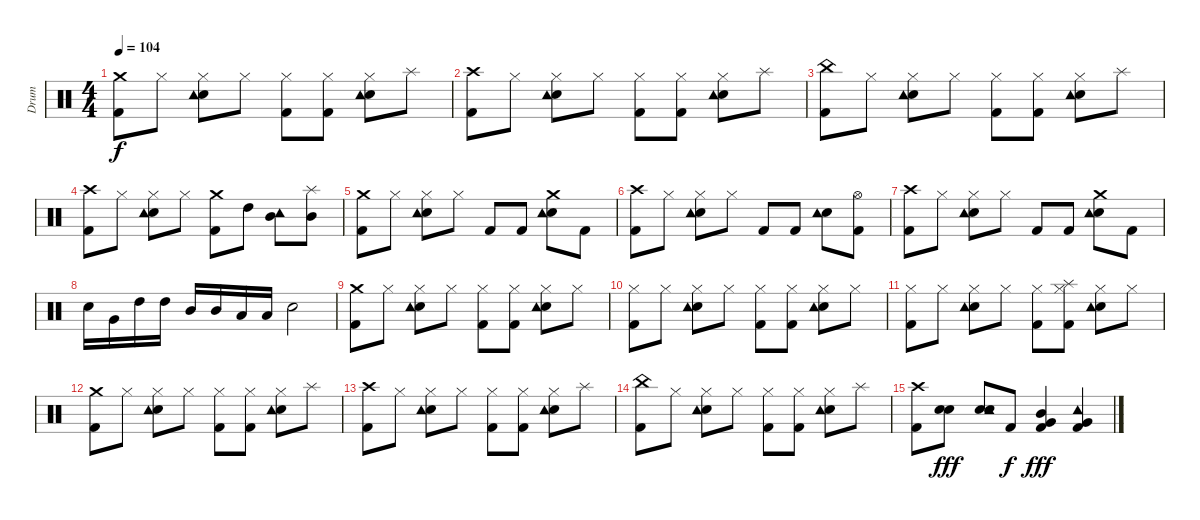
\track ("Drum" "Drum") {instrument percussion}
\staff {score}
\articulation defaults
\ts (4 4)
\tempo 104
\clef neutral
\ks c
("Crash medium (hit)" "Kick (hit) 2").8{dy f} "Hi-Hat (closed)".8 ("Snare (hit) 2" "Hi-Hat (closed)" "Tambourine (hit)").8 "Hi-Hat (closed)".8 ("Hi-Hat (closed)" "Kick (hit) 2").8 ("Hi-Hat (closed)" "Kick (hit) 2").8 ("Snare (hit) 2" "Hi-Hat (closed)" "Tambourine (hit)").8 "Splash (hit)".8 |
("Crash high (hit)" "Kick (hit) 2").8 "Hi-Hat (closed)".8 ("Snare (hit) 2" "Hi-Hat (closed)" "Tambourine (hit)").8 "Hi-Hat (closed)".8 ("Hi-Hat (closed)" "Kick (hit) 2").8 ("Hi-Hat (closed)" "Kick (hit) 2").8 ("Snare (hit) 2" "Hi-Hat (closed)" "Tambourine (hit)").8 "Splash (hit)".8 |
("China (hit)" "Kick (hit) 2").8 "Hi-Hat (closed)".8 ("Snare (hit) 2" "Hi-Hat (closed)" "Tambourine (hit)").8 "Hi-Hat (closed)".8 ("Hi-Hat (closed)" "Kick (hit) 2").8 ("Hi-Hat (closed)" "Kick (hit) 2").8 ("Snare (hit) 2" "Hi-Hat (closed)" "Tambourine (hit)").8 "Splash (hit)".8 |
("Crash high (hit)" "Kick (hit) 2").8 "Hi-Hat (closed)".8 ("Snare (hit) 2" "Hi-Hat (closed)" "Tambourine (hit)").8 "Hi-Hat (closed)".8 ("Crash medium (hit)" "Kick (hit) 2").8 "High Tom (hit)".8 ("Mid Tom (hit)" "Tambourine (hit)").8 ("Mid Tom (hit)" "Splash (hit)").8 |
("Crash medium (hit)" "Kick (hit) 2").8 "Hi-Hat (closed)".8 ("Snare (hit) 2" "Hi-Hat (closed)" "Tambourine (hit)").8 "Hi-Hat (closed)".8 "Kick (hit) 2".8 "Kick (hit) 2".8 ("Snare (hit) 2" "Crash medium (hit)" "Tambourine (hit)").8 "Kick (hit) 2".8 |
("Crash high (hit)" "Kick (hit) 2").8 "Hi-Hat (closed)".8 ("Snare (hit) 2" "Hi-Hat (closed)" "Tambourine (hit)").8 "Hi-Hat (closed)".8 "Kick (hit) 2".8 "Kick (hit) 2".8 ("Snare (hit) 2" "Tambourine (hit)").8 ("Hi-Hat (open)" "Kick (hit) 2").8 |
("Crash high (hit)" "Kick (hit) 2").8 "Hi-Hat (closed)".8 ("Snare (hit) 2" "Hi-Hat (closed)" "Tambourine (hit)").8 "Hi-Hat (closed)".8 "Kick (hit) 2".8 "Kick (hit) 2".8 ("Snare (hit) 2" "Crash medium (hit)" "Tambourine (hit)").8 "Kick (hit) 2".8 |
"Snare (hit) 2".16 "Very Low Tom (hit)".16 "High Tom (hit)".16 "High Tom (hit)".16 "Mid Tom (hit)".16 "Mid Tom (hit)".16 "Low Tom (hit)".16 "Low Tom (hit)".16 "Snare (hit) 2".2 |
("Crash medium (hit)" "Kick (hit) 2").8 "Hi-Hat (closed)".8 ("Snare (hit) 2" "Hi-Hat (closed)" "Tambourine (hit)").8 "Hi-Hat (closed)".8 ("Hi-Hat (closed)" "Kick (hit) 2").8 ("Hi-Hat (closed)" "Kick (hit) 2").8 ("Snare (hit) 2" "Hi-Hat (closed)" "Tambourine (hit)").8 "Hi-Hat (closed)".8 |
("Hi-Hat (closed)" "Kick (hit) 2").8 "Hi-Hat (closed)".8 ("Snare (hit) 2" "Hi-Hat (closed)" "Tambourine (hit)").8 "Hi-Hat (closed)".8 ("Hi-Hat (closed)" "Kick (hit) 2").8 ("Hi-Hat (closed)" "Kick (hit) 2").8 ("Snare (hit) 2" "Hi-Hat (closed)" "Tambourine (hit)").8 "Hi-Hat (closed)".8 |
("Hi-Hat (closed)" "Kick (hit) 2").8 "Hi-Hat (closed)".8 ("Snare (hit) 2" "Hi-Hat (closed)" "Tambourine (hit)").8 "Hi-Hat (closed)".8 ("Hi-Hat (closed)" "Kick (hit) 2").8 ("Hi-Hat (closed)" "Splash (hit)" "Kick (hit) 2").8 ("Snare (hit) 2" "Hi-Hat (closed)" "Tambourine (hit)").8 "Hi-Hat (closed)".8 |
("Crash medium (hit)" "Kick (hit) 2").8 "Hi-Hat (closed)".8 ("Snare (hit) 2" "Hi-Hat (closed)" "Tambourine (hit)").8 "Hi-Hat (closed)".8 ("Hi-Hat (closed)" "Kick (hit) 2").8 ("Hi-Hat (closed)" "Kick (hit) 2").8 ("Snare (hit) 2" "Hi-Hat (closed)" "Tambourine (hit)").8 "Splash (hit)".8 |
("Crash high (hit)" "Kick (hit) 2").8 "Hi-Hat (closed)".8 ("Snare (hit) 2" "Hi-Hat (closed)" "Tambourine (hit)").8 "Hi-Hat (closed)".8 ("Hi-Hat (closed)" "Kick (hit) 2").8 ("Hi-Hat (closed)" "Kick (hit) 2").8 ("Snare (hit) 2" "Hi-Hat (closed)" "Tambourine (hit)").8 "Splash (hit)".8 |
("China (hit)" "Kick (hit) 2").8 "Hi-Hat (closed)".8 ("Snare (hit) 2" "Hi-Hat (closed)" "Tambourine (hit)").8 "Hi-Hat (closed)".8 ("Hi-Hat (closed)" "Kick (hit) 2").8 ("Hi-Hat (closed)" "Kick (hit) 2").8 ("Snare (hit) 2" "Hi-Hat (closed)" "Tambourine (hit)").8 "Splash (hit)".8 |
("Crash high (hit)" "Kick (hit) 2").8 ("Snare (hit) 2" "Electric Snare (hit)").8{dy fff} ("Snare (hit) 2" "Electric Snare (hit)" "Tambourine (hit)").8 "Kick (hit) 2".8{dy f} ("Mid Tom (hit)" "Very Low Tom (hit)" "Kick (hit) 2").4{dy fff} ("Very Low Tom (hit)" "Tambourine (hit)" "Kick (hit) 2").4
